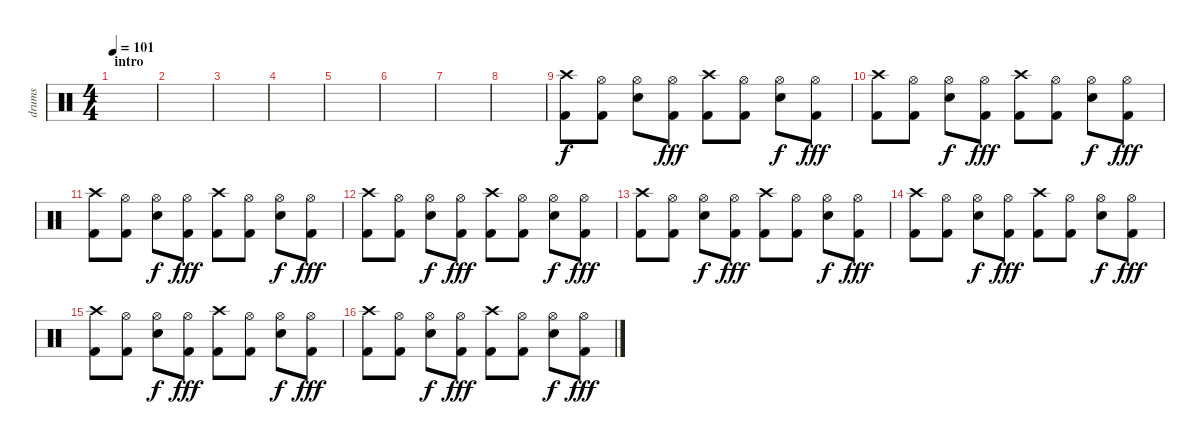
\track ("drums" "drums") {instrument percussion}
\staff {score}
\articulation defaults
\ts (4 4)
\section ("" "intro")
\tempo 101
\clef neutral
\ks c
|
|
|
|
|
|
|
|
("Crash high (hit)" "Kick (hit) 2").8 ("Hi-Hat (open)" "Kick (hit) 2").8 ("Hi-Hat (open)" "Snare (hit) 2").8{dy f} ("Hi-Hat (open)" "Kick (hit) 2").8{dy fff} ("Crash high (hit)" "Kick (hit) 2").8 ("Hi-Hat (open)" "Kick (hit) 2").8 ("Hi-Hat (open)" "Snare (hit) 2").8{dy f} ("Hi-Hat (open)" "Kick (hit) 2").8{dy fff} |
("Crash high (hit)" "Kick (hit) 2").8 ("Hi-Hat (open)" "Kick (hit) 2").8 ("Hi-Hat (open)" "Snare (hit) 2").8{dy f} ("Hi-Hat (open)" "Kick (hit) 2").8{dy fff} ("Crash high (hit)" "Kick (hit) 2").8 ("Hi-Hat (open)" "Kick (hit) 2").8 ("Hi-Hat (open)" "Snare (hit) 2").8{dy f} ("Hi-Hat (open)" "Kick (hit) 2").8{dy fff} |
("Crash high (hit)" "Kick (hit) 2").8 ("Hi-Hat (open)" "Kick (hit) 2").8 ("Hi-Hat (open)" "Snare (hit) 2").8{dy f} ("Hi-Hat (open)" "Kick (hit) 2").8{dy fff} ("Crash high (hit)" "Kick (hit) 2").8 ("Hi-Hat (open)" "Kick (hit) 2").8 ("Hi-Hat (open)" "Snare (hit) 2").8{dy f} ("Hi-Hat (open)" "Kick (hit) 2").8{dy fff} |
("Crash high (hit)" "Kick (hit) 2").8 ("Hi-Hat (open)" "Kick (hit) 2").8 ("Hi-Hat (open)" "Snare (hit) 2").8{dy f} ("Hi-Hat (open)" "Kick (hit) 2").8{dy fff} ("Crash high (hit)" "Kick (hit) 2").8 ("Hi-Hat (open)" "Kick (hit) 2").8 ("Hi-Hat (open)" "Snare (hit) 2").8{dy f} ("Hi-Hat (open)" "Kick (hit) 2").8{dy fff} |
("Crash high (hit)" "Kick (hit) 2").8 ("Hi-Hat (open)" "Kick (hit) 2").8 ("Hi-Hat (open)" "Snare (hit) 2").8{dy f} ("Hi-Hat (open)" "Kick (hit) 2").8{dy fff} ("Crash high (hit)" "Kick (hit) 2").8 ("Hi-Hat (open)" "Kick (hit) 2").8 ("Hi-Hat (open)" "Snare (hit) 2").8{dy f} ("Hi-Hat (open)" "Kick (hit) 2").8{dy fff} |
("Crash high (hit)" "Kick (hit) 2").8 ("Hi-Hat (open)" "Kick (hit) 2").8 ("Hi-Hat (open)" "Snare (hit) 2").8{dy f} ("Hi-Hat (open)" "Kick (hit) 2").8{dy fff} ("Crash high (hit)" "Kick (hit) 2").8 ("Hi-Hat (open)" "Kick (hit) 2").8 ("Hi-Hat (open)" "Snare (hit) 2").8{dy f} ("Hi-Hat (open)" "Kick (hit) 2").8{dy fff} |
("Crash high (hit)" "Kick (hit) 2").8 ("Hi-Hat (open)" "Kick (hit) 2").8 ("Hi-Hat (open)" "Snare (hit) 2").8{dy f} ("Hi-Hat (open)" "Kick (hit) 2").8{dy fff} ("Crash high (hit)" "Kick (hit) 2").8 ("Hi-Hat (open)" "Kick (hit) 2").8 ("Hi-Hat (open)" "Snare (hit) 2").8{dy f} ("Hi-Hat (open)" "Kick (hit) 2").8{dy fff} |
("Crash high (hit)" "Kick (hit) 2").8 ("Hi-Hat (open)" "Kick (hit) 2").8 ("Hi-Hat (open)" "Snare (hit) 2").8{dy f} ("Hi-Hat (open)" "Kick (hit) 2").8{dy fff} ("Crash high (hit)" "Kick (hit) 2").8 ("Hi-Hat (open)" "Kick (hit) 2").8 ("Hi-Hat (open)" "Snare (hit) 2").8{dy f} ("Hi-Hat (open)" "Kick (hit) 2").8{dy fff}
